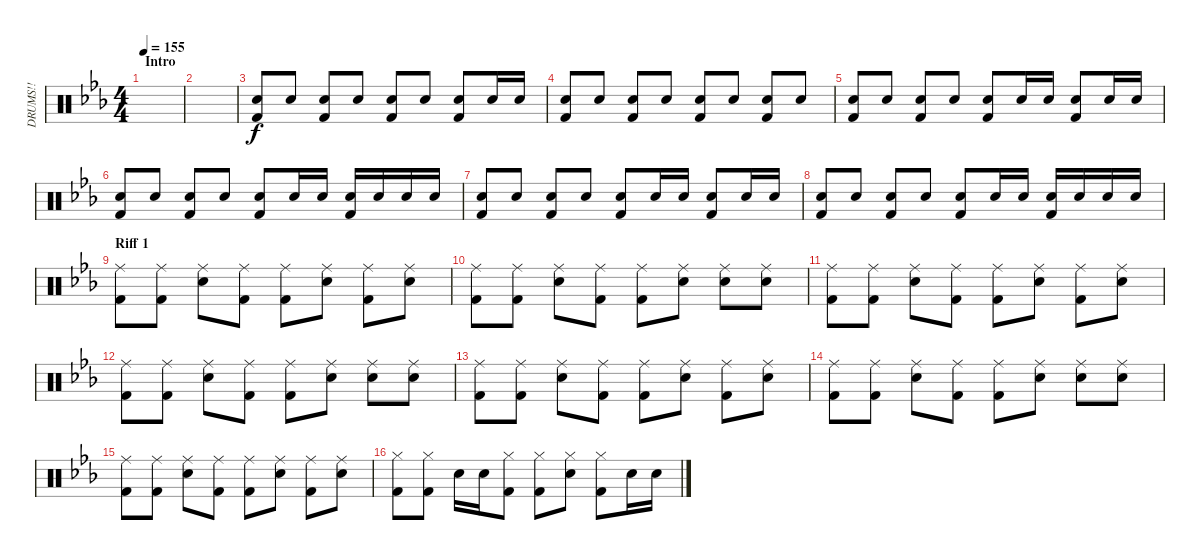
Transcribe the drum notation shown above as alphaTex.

\track ("DRUMS!!" "DRUMS!!") {instrument percussion}
\staff {score}
\articulation defaults
\ts (4 4)
\section ("" "Intro")
\tempo 155
\clef neutral
\ks eb
|
|
("Snare (hit) 2" "Kick (hit) 2").8 "Snare (hit) 2".8 ("Snare (hit) 2" "Kick (hit) 2").8 "Snare (hit) 2".8 ("Snare (hit) 2" "Kick (hit) 2").8 "Snare (hit) 2".8 ("Snare (hit) 2" "Kick (hit) 2").8 "Snare (hit) 2".16 "Snare (hit) 2".16 |
("Snare (hit) 2" "Kick (hit) 2").8 "Snare (hit) 2".8 ("Snare (hit) 2" "Kick (hit) 2").8 "Snare (hit) 2".8 ("Snare (hit) 2" "Kick (hit) 2").8 "Snare (hit) 2".8 ("Snare (hit) 2" "Kick (hit) 2").8 "Snare (hit) 2".8 |
("Snare (hit) 2" "Kick (hit) 2").8 "Snare (hit) 2".8 ("Snare (hit) 2" "Kick (hit) 2").8 "Snare (hit) 2".8 ("Snare (hit) 2" "Kick (hit) 2").8 "Snare (hit) 2".16 "Snare (hit) 2".16 ("Snare (hit) 2" "Kick (hit) 2").8 "Snare (hit) 2".16 "Snare (hit) 2".16 |
("Snare (hit) 2" "Kick (hit) 2").8 "Snare (hit) 2".8 ("Snare (hit) 2" "Kick (hit) 2").8 "Snare (hit) 2".8 ("Snare (hit) 2" "Kick (hit) 2").8 "Snare (hit) 2".16 "Snare (hit) 2".16 ("Snare (hit) 2" "Kick (hit) 2").16 "Snare (hit) 2".16 "Snare (hit) 2".16 "Snare (hit) 2".16 |
("Snare (hit) 2" "Kick (hit) 2").8 "Snare (hit) 2".8 ("Snare (hit) 2" "Kick (hit) 2").8 "Snare (hit) 2".8 ("Snare (hit) 2" "Kick (hit) 2").8 "Snare (hit) 2".16 "Snare (hit) 2".16 ("Snare (hit) 2" "Kick (hit) 2").8 "Snare (hit) 2".16 "Snare (hit) 2".16 |
("Snare (hit) 2" "Kick (hit) 2").8 "Snare (hit) 2".8 ("Snare (hit) 2" "Kick (hit) 2").8 "Snare (hit) 2".8 ("Snare (hit) 2" "Kick (hit) 2").8 "Snare (hit) 2".16 "Snare (hit) 2".16 ("Snare (hit) 2" "Kick (hit) 2").16 "Snare (hit) 2".16 "Snare (hit) 2".16 "Snare (hit) 2".16 |
\section ("" "Riff 1")
("Ride (middle)" "Kick (hit) 2").8 ("Ride (middle)" "Kick (hit) 2").8 ("Ride (middle)" "Snare (hit) 2").8 ("Ride (middle)" "Kick (hit) 2").8 ("Ride (middle)" "Kick (hit) 2").8 ("Ride (middle)" "Snare (hit) 2").8 ("Ride (middle)" "Kick (hit) 2").8 ("Ride (middle)" "Snare (hit) 2").8 |
("Ride (middle)" "Kick (hit) 2").8 ("Ride (middle)" "Kick (hit) 2").8 ("Ride (middle)" "Snare (hit) 2").8 ("Ride (middle)" "Kick (hit) 2").8 ("Ride (middle)" "Kick (hit) 2").8 ("Ride (middle)" "Snare (hit) 2").8 ("Ride (middle)" "Snare (hit) 2").8 ("Ride (middle)" "Snare (hit) 2").8 |
("Ride (middle)" "Kick (hit) 2").8 ("Ride (middle)" "Kick (hit) 2").8 ("Ride (middle)" "Snare (hit) 2").8 ("Ride (middle)" "Kick (hit) 2").8 ("Ride (middle)" "Kick (hit) 2").8 ("Ride (middle)" "Snare (hit) 2").8 ("Ride (middle)" "Kick (hit) 2").8 ("Ride (middle)" "Snare (hit) 2").8 |
("Ride (middle)" "Kick (hit) 2").8 ("Ride (middle)" "Kick (hit) 2").8 ("Ride (middle)" "Snare (hit) 2").8 ("Ride (middle)" "Kick (hit) 2").8 ("Ride (middle)" "Kick (hit) 2").8 ("Ride (middle)" "Snare (hit) 2").8 ("Ride (middle)" "Snare (hit) 2").8 ("Ride (middle)" "Snare (hit) 2").8 |
("Ride (middle)" "Kick (hit) 2").8 ("Ride (middle)" "Kick (hit) 2").8 ("Ride (middle)" "Snare (hit) 2").8 ("Ride (middle)" "Kick (hit) 2").8 ("Ride (middle)" "Kick (hit) 2").8 ("Ride (middle)" "Snare (hit) 2").8 ("Ride (middle)" "Kick (hit) 2").8 ("Ride (middle)" "Snare (hit) 2").8 |
("Ride (middle)" "Kick (hit) 2").8 ("Ride (middle)" "Kick (hit) 2").8 ("Ride (middle)" "Snare (hit) 2").8 ("Ride (middle)" "Kick (hit) 2").8 ("Ride (middle)" "Kick (hit) 2").8 ("Ride (middle)" "Snare (hit) 2").8 ("Ride (middle)" "Snare (hit) 2").8 ("Ride (middle)" "Snare (hit) 2").8 |
("Ride (middle)" "Kick (hit) 2").8 ("Ride (middle)" "Kick (hit) 2").8 ("Ride (middle)" "Snare (hit) 2").8 ("Ride (middle)" "Kick (hit) 2").8 ("Ride (middle)" "Kick (hit) 2").8 ("Ride (middle)" "Snare (hit) 2").8 ("Ride (middle)" "Kick (hit) 2").8 ("Ride (middle)" "Snare (hit) 2").8 |
("Hi-Hat (closed)" "Kick (hit) 2").8 ("Hi-Hat (closed)" "Kick (hit) 2").8 "Snare (hit) 2".16 "Snare (hit) 2".16 ("Hi-Hat (closed)" "Kick (hit) 2").8 ("Hi-Hat (closed)" "Kick (hit) 2").8 ("Hi-Hat (closed)" "Snare (hit) 2").8 ("Hi-Hat (closed)" "Kick (hit) 2").8 "Snare (hit) 2".16 "Snare (hit) 2".16
